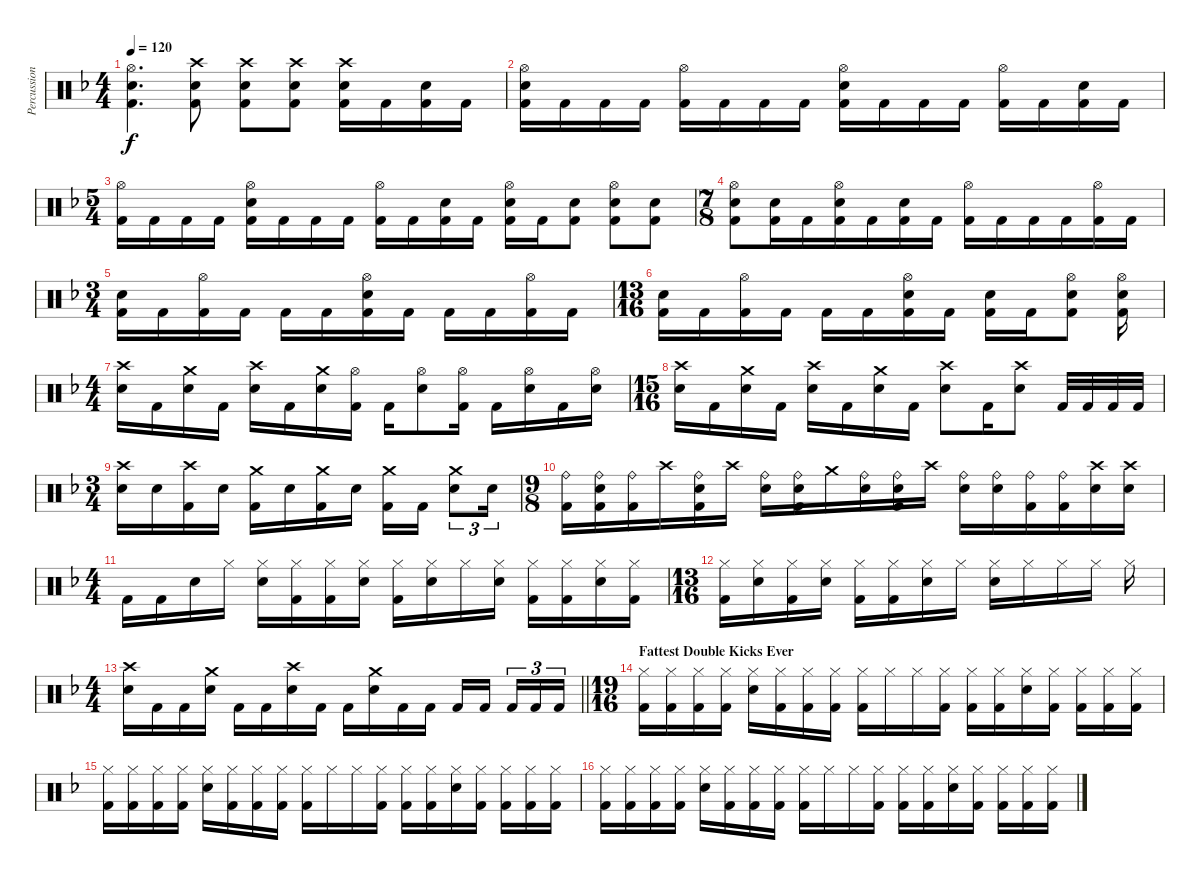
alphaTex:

\track ("Percussion" "Percussion") {instrument percussion}
\staff {score}
\articulation defaults
\ts (4 4)
\tempo 120
\clef neutral
\ks dminor
("Hi-Hat (open)" "Snare (hit) 2" "Kick (hit) 2").4{d dy f} ("Crash high (hit)" "Snare (hit) 2" "Kick (hit) 2").8 ("Crash high (hit)" "Snare (hit) 2" "Kick (hit) 2").8 ("Crash high (hit)" "Snare (hit) 2" "Kick (hit) 2").8 ("Crash high (hit)" "Snare (hit) 2" "Kick (hit) 2").16 "Kick (hit) 2".16 ("Snare (hit) 2" "Kick (hit) 2").16 "Kick (hit) 2".16 |
("Hi-Hat (open)" "Snare (hit) 2" "Kick (hit) 2").16 "Kick (hit) 2".16 "Kick (hit) 2".16 "Kick (hit) 2".16 ("Hi-Hat (open)" "Kick (hit) 2").16 "Kick (hit) 2".16 "Kick (hit) 2".16 "Kick (hit) 2".16 ("Hi-Hat (open)" "Snare (hit) 2" "Kick (hit) 2").16 "Kick (hit) 2".16 "Kick (hit) 2".16 "Kick (hit) 2".16 ("Hi-Hat (open)" "Kick (hit) 2").16 "Kick (hit) 2".16 ("Snare (hit) 2" "Kick (hit) 2").16 "Kick (hit) 2".16 |
\ts (5 4)
("Hi-Hat (open)" "Kick (hit) 2").16 "Kick (hit) 2".16 "Kick (hit) 2".16 "Kick (hit) 2".16 ("Hi-Hat (open)" "Snare (hit) 2" "Kick (hit) 2").16 "Kick (hit) 2".16 "Kick (hit) 2".16 "Kick (hit) 2".16 ("Hi-Hat (open)" "Kick (hit) 2").16 "Kick (hit) 2".16 ("Snare (hit) 2" "Kick (hit) 2").16 "Kick (hit) 2".16 ("Hi-Hat (open)" "Snare (hit) 2" "Kick (hit) 2").16 "Kick (hit) 2".16 ("Snare (hit) 2" "Kick (hit) 2").8 ("Hi-Hat (open)" "Snare (hit) 2" "Kick (hit) 2").8 ("Snare (hit) 2" "Kick (hit) 2").8 |
\ts (7 8)
("Hi-Hat (open)" "Snare (hit) 2" "Kick (hit) 2").8 ("Snare (hit) 2" "Kick (hit) 2").16 "Kick (hit) 2".16 ("Hi-Hat (open)" "Snare (hit) 2" "Kick (hit) 2").16 "Kick (hit) 2".16 ("Snare (hit) 2" "Kick (hit) 2").16 "Kick (hit) 2".16 ("Hi-Hat (open)" "Kick (hit) 2").16 "Kick (hit) 2".16 "Kick (hit) 2".16 "Kick (hit) 2".16 ("Hi-Hat (open)" "Kick (hit) 2").16 "Kick (hit) 2".16 |
\ts (3 4)
("Snare (hit) 2" "Kick (hit) 2").16 "Kick (hit) 2".16 ("Hi-Hat (open)" "Kick (hit) 2").16 "Kick (hit) 2".16 "Kick (hit) 2".16 "Kick (hit) 2".16 ("Hi-Hat (open)" "Snare (hit) 2" "Kick (hit) 2").16 "Kick (hit) 2".16 "Kick (hit) 2".16 "Kick (hit) 2".16 ("Hi-Hat (open)" "Kick (hit) 2").16 "Kick (hit) 2".16 |
\ts (13 16)
("Snare (hit) 2" "Kick (hit) 2").16 "Kick (hit) 2".16 ("Hi-Hat (open)" "Kick (hit) 2").16 "Kick (hit) 2".16 "Kick (hit) 2".16 "Kick (hit) 2".16 ("Hi-Hat (open)" "Snare (hit) 2" "Kick (hit) 2").16 "Kick (hit) 2".16 ("Snare (hit) 2" "Kick (hit) 2").16 "Kick (hit) 2".16 ("Hi-Hat (open)" "Snare (hit) 2" "Kick (hit) 2").8 ("Hi-Hat (open)" "Snare (hit) 2" "Kick (hit) 2").16 |
\ts (4 4)
("Crash high (hit)" "Snare (hit) 2").16 "Kick (hit) 2".16 ("Crash medium (hit)" "Snare (hit) 2").16 "Kick (hit) 2".16 ("Crash high (hit)" "Snare (hit) 2").16 "Kick (hit) 2".16 ("Crash medium (hit)" "Snare (hit) 2").16 ("Hi-Hat (open)" "Kick (hit) 2").16 "Kick (hit) 2".16 ("Hi-Hat (open)" "Snare (hit) 2").8 ("Hi-Hat (open)" "Kick (hit) 2").16 "Kick (hit) 2".16 ("Hi-Hat (open)" "Snare (hit) 2").16 "Kick (hit) 2".16 ("Hi-Hat (open)" "Snare (hit) 2").16 |
\ts (15 16)
("Crash high (hit)" "Snare (hit) 2").16 "Kick (hit) 2".16 ("Crash medium (hit)" "Snare (hit) 2").16 "Kick (hit) 2".16 ("Crash high (hit)" "Snare (hit) 2").16 "Kick (hit) 2".16 ("Crash medium (hit)" "Snare (hit) 2").16 "Kick (hit) 2".16 ("Crash high (hit)" "Snare (hit) 2").8 "Kick (hit) 2".16 ("Crash high (hit)" "Snare (hit) 2").8 "Kick (hit) 2".32 "Kick (hit) 2".32 "Kick (hit) 2".32 "Kick (hit) 2".32 |
\ts (3 4)
("Crash high (hit)" "Snare (hit) 2").16 "Snare (hit) 2".16 ("Crash high (hit)" "Kick (hit) 2").16 "Snare (hit) 2".16 ("Crash medium (hit)" "Kick (hit) 2").16 "Snare (hit) 2".16 ("Crash medium (hit)" "Kick (hit) 2").16 "Snare (hit) 2".16 ("Crash medium (hit)" "Kick (hit) 2").16 "Kick (hit) 2".16 ("Crash medium (hit)" "Snare (hit) 2").8{tu (3 2)} "Snare (hit) 2".16{tu (3 2)} |
\ts (9 8)
("Ride (bell)" "Kick (hit) 2").16 ("Ride (bell)" "Snare (hit) 2" "Kick (hit) 2").16 ("Ride (bell)" "Kick (hit) 2").16 "Crash high (hit)".16 ("Ride (bell)" "Snare (hit) 2" "Kick (hit) 2").16 "Crash high (hit)".16 ("Ride (bell)" "Snare (hit) 2").16 ("Ride (bell)" "Snare (hit) 2" "Kick (hit) 2").16 "Crash medium (hit)".16 ("Ride (bell)" "Snare (hit) 2").16 ("Ride (bell)" "Snare (hit) 2" "Kick (hit) 2").16 "Crash high (hit)".16 ("Ride (bell)" "Snare (hit) 2").16 ("Ride (bell)" "Snare (hit) 2").16 ("Ride (bell)" "Kick (hit) 2").16 ("Ride (bell)" "Kick (hit) 2").16 ("Crash high (hit)" "Snare (hit) 2").16 ("Crash high (hit)" "Snare (hit) 2").16 |
\ts (4 4)
"Kick (hit) 2".16 "Kick (hit) 2".16 "Snare (hit) 2".16 "Hi-Hat (closed)".16 ("Hi-Hat (closed)" "Snare (hit) 2").16 ("Hi-Hat (closed)" "Kick (hit) 2").16 ("Hi-Hat (closed)" "Kick (hit) 2").16 ("Hi-Hat (closed)" "Snare (hit) 2").16 ("Hi-Hat (closed)" "Kick (hit) 2").16 ("Hi-Hat (closed)" "Snare (hit) 2").16 "Hi-Hat (closed)".16 ("Hi-Hat (closed)" "Snare (hit) 2").16 ("Hi-Hat (closed)" "Kick (hit) 2").16 ("Hi-Hat (closed)" "Kick (hit) 2").16 ("Hi-Hat (closed)" "Snare (hit) 2").16 ("Hi-Hat (closed)" "Kick (hit) 2").16 |
\ts (13 16)
("Hi-Hat (closed)" "Kick (hit) 2").16 ("Hi-Hat (closed)" "Snare (hit) 2").16 ("Hi-Hat (closed)" "Kick (hit) 2").16 ("Hi-Hat (closed)" "Snare (hit) 2").16 ("Hi-Hat (closed)" "Kick (hit) 2").16 ("Hi-Hat (closed)" "Kick (hit) 2").16 ("Hi-Hat (closed)" "Snare (hit) 2").16 "Hi-Hat (closed)".16 ("Hi-Hat (closed)" "Snare (hit) 2").16 "Hi-Hat (closed)".16 "Hi-Hat (closed)".16 "Hi-Hat (closed)".16 "Hi-Hat (closed)".16 |
\ts (4 4)
\barLineRight lightlight
("Crash high (hit)" "Snare (hit) 2").16 "Kick (hit) 2".16 "Kick (hit) 2".16 ("Crash medium (hit)" "Snare (hit) 2").16 "Kick (hit) 2".16 "Kick (hit) 2".16 ("Crash high (hit)" "Snare (hit) 2").16 "Kick (hit) 2".16 "Kick (hit) 2".16 ("Crash medium (hit)" "Snare (hit) 2").16 "Kick (hit) 2".16 "Kick (hit) 2".16 "Kick (hit) 2".16 "Kick (hit) 2".16{beam splitsecondary} "Kick (hit) 2".16{tu (3 2)} "Kick (hit) 2".16{tu (3 2)} "Kick (hit) 2".16{tu (3 2)} |
\ts (19 16)
\section ("" "Fattest Double Kicks Ever")
("Hi-Hat (closed)" "Kick (hit) 2").16 ("Hi-Hat (closed)" "Kick (hit) 2").16 ("Hi-Hat (closed)" "Kick (hit) 2").16 ("Hi-Hat (closed)" "Kick (hit) 2").16 ("Hi-Hat (closed)" "Snare (hit) 2").16 ("Hi-Hat (closed)" "Kick (hit) 2").16 ("Hi-Hat (closed)" "Kick (hit) 2").16 ("Hi-Hat (closed)" "Kick (hit) 2").16 ("Hi-Hat (closed)" "Kick (hit) 2").16 "Hi-Hat (closed)".16 "Hi-Hat (closed)".16 ("Hi-Hat (closed)" "Kick (hit) 2").16 ("Hi-Hat (closed)" "Kick (hit) 2").16 ("Hi-Hat (closed)" "Kick (hit) 2").16 ("Hi-Hat (closed)" "Snare (hit) 2").16 ("Hi-Hat (closed)" "Kick (hit) 2").16 ("Hi-Hat (closed)" "Kick (hit) 2").16 ("Hi-Hat (closed)" "Kick (hit) 2").16 ("Hi-Hat (closed)" "Kick (hit) 2").16 |
("Hi-Hat (closed)" "Kick (hit) 2").16 ("Hi-Hat (closed)" "Kick (hit) 2").16 ("Hi-Hat (closed)" "Kick (hit) 2").16 ("Hi-Hat (closed)" "Kick (hit) 2").16 ("Hi-Hat (closed)" "Snare (hit) 2").16 ("Hi-Hat (closed)" "Kick (hit) 2").16 ("Hi-Hat (closed)" "Kick (hit) 2").16 ("Hi-Hat (closed)" "Kick (hit) 2").16 ("Hi-Hat (closed)" "Kick (hit) 2").16 "Hi-Hat (closed)".16 "Hi-Hat (closed)".16 ("Hi-Hat (closed)" "Kick (hit) 2").16 ("Hi-Hat (closed)" "Kick (hit) 2").16 ("Hi-Hat (closed)" "Kick (hit) 2").16 ("Hi-Hat (closed)" "Snare (hit) 2").16 ("Hi-Hat (closed)" "Kick (hit) 2").16 ("Hi-Hat (closed)" "Kick (hit) 2").16 ("Hi-Hat (closed)" "Kick (hit) 2").16 ("Hi-Hat (closed)" "Kick (hit) 2").16 |
("Hi-Hat (closed)" "Kick (hit) 2").16 ("Hi-Hat (closed)" "Kick (hit) 2").16 ("Hi-Hat (closed)" "Kick (hit) 2").16 ("Hi-Hat (closed)" "Kick (hit) 2").16 ("Hi-Hat (closed)" "Snare (hit) 2").16 ("Hi-Hat (closed)" "Kick (hit) 2").16 ("Hi-Hat (closed)" "Kick (hit) 2").16 ("Hi-Hat (closed)" "Kick (hit) 2").16 ("Hi-Hat (closed)" "Kick (hit) 2").16 "Hi-Hat (closed)".16 "Hi-Hat (closed)".16 ("Hi-Hat (closed)" "Kick (hit) 2").16 ("Hi-Hat (closed)" "Kick (hit) 2").16 ("Hi-Hat (closed)" "Kick (hit) 2").16 ("Hi-Hat (closed)" "Snare (hit) 2").16 ("Hi-Hat (closed)" "Kick (hit) 2").16 ("Hi-Hat (closed)" "Kick (hit) 2").16 ("Hi-Hat (closed)" "Kick (hit) 2").16 ("Hi-Hat (closed)" "Kick (hit) 2").16
